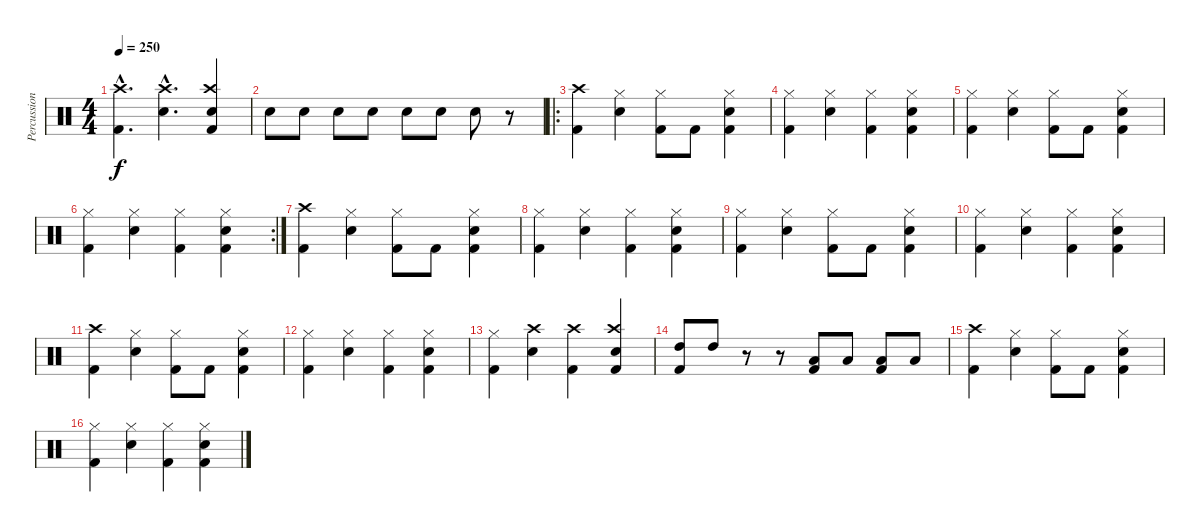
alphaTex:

\track ("Percussion" "Percussion") {instrument percussion}
\staff {score}
\articulation defaults
\ts (4 4)
\tempo 250
\clef neutral
\ks c
("Kick (hit) 2"{hac} "Crash high (hit)"{hac}).4{d dy f} ("Electric Snare (hit)"{hac} "Crash high (hit)"{hac}).4{d} ("Electric Snare (hit)" "Kick (hit) 2" "Crash high (hit)").4 |
"Electric Snare (hit)".8 "Electric Snare (hit)".8 "Electric Snare (hit)".8 "Electric Snare (hit)".8 "Electric Snare (hit)".8 "Electric Snare (hit)".8 "Electric Snare (hit)".8 r.8 |
\ro
("Kick (hit) 2" "Crash high (hit)").4 ("Electric Snare (hit)" "Hi-Hat (closed)").4 ("Kick (hit) 2" "Hi-Hat (closed)").8 "Kick (hit) 2".8 ("Electric Snare (hit)" "Kick (hit) 2" "Hi-Hat (closed)").4 |
("Kick (hit) 2" "Hi-Hat (closed)").4 ("Electric Snare (hit)" "Hi-Hat (closed)").4 ("Kick (hit) 2" "Hi-Hat (closed)").4 ("Electric Snare (hit)" "Kick (hit) 2" "Hi-Hat (closed)").4 |
("Kick (hit) 2" "Hi-Hat (closed)").4 ("Electric Snare (hit)" "Hi-Hat (closed)").4 ("Kick (hit) 2" "Hi-Hat (closed)").8 "Kick (hit) 2".8 ("Electric Snare (hit)" "Kick (hit) 2" "Hi-Hat (closed)").4 |
\rc 2
("Kick (hit) 2" "Hi-Hat (closed)").4 ("Electric Snare (hit)" "Hi-Hat (closed)").4 ("Kick (hit) 2" "Hi-Hat (closed)").4 ("Electric Snare (hit)" "Kick (hit) 2" "Hi-Hat (closed)").4 |
("Kick (hit) 2" "Crash high (hit)").4 ("Electric Snare (hit)" "Hi-Hat (closed)").4 ("Kick (hit) 2" "Hi-Hat (closed)").8 "Kick (hit) 2".8 ("Electric Snare (hit)" "Kick (hit) 2" "Hi-Hat (closed)").4 |
("Kick (hit) 2" "Hi-Hat (closed)").4 ("Electric Snare (hit)" "Hi-Hat (closed)").4 ("Kick (hit) 2" "Hi-Hat (closed)").4 ("Electric Snare (hit)" "Kick (hit) 2" "Hi-Hat (closed)").4 |
("Kick (hit) 2" "Hi-Hat (closed)").4 ("Electric Snare (hit)" "Hi-Hat (closed)").4 ("Kick (hit) 2" "Hi-Hat (closed)").8 "Kick (hit) 2".8 ("Electric Snare (hit)" "Kick (hit) 2" "Hi-Hat (closed)").4 |
("Kick (hit) 2" "Hi-Hat (closed)").4 ("Electric Snare (hit)" "Hi-Hat (closed)").4 ("Kick (hit) 2" "Hi-Hat (closed)").4 ("Electric Snare (hit)" "Kick (hit) 2" "Hi-Hat (closed)").4 |
("Kick (hit) 2" "Crash high (hit)").4 ("Electric Snare (hit)" "Hi-Hat (closed)").4 ("Kick (hit) 2" "Hi-Hat (closed)").8 "Kick (hit) 2".8 ("Electric Snare (hit)" "Kick (hit) 2" "Hi-Hat (closed)").4 |
("Kick (hit) 2" "Hi-Hat (closed)").4 ("Electric Snare (hit)" "Hi-Hat (closed)").4 ("Kick (hit) 2" "Hi-Hat (closed)").4 ("Electric Snare (hit)" "Kick (hit) 2" "Hi-Hat (closed)").4 |
("Kick (hit) 2" "Hi-Hat (closed)").4 ("Electric Snare (hit)" "Crash high (hit)").4 ("Kick (hit) 2" "Crash high (hit)").4 ("Electric Snare (hit)" "Kick (hit) 2" "Crash high (hit)").4 |
("Kick (hit) 2" "High Tom (hit)").8 "High Tom (hit)".8 r.8 r.8 ("Kick (hit) 2" "Low Tom (hit)").8 "Low Tom (hit)".8 ("Kick (hit) 2" "Low Tom (hit)").8 "Low Tom (hit)".8 |
("Kick (hit) 2" "Crash high (hit)").4 ("Electric Snare (hit)" "Hi-Hat (closed)").4 ("Kick (hit) 2" "Hi-Hat (closed)").8 "Kick (hit) 2".8 ("Electric Snare (hit)" "Kick (hit) 2" "Hi-Hat (closed)").4 |
("Kick (hit) 2" "Hi-Hat (closed)").4 ("Electric Snare (hit)" "Hi-Hat (closed)").4 ("Kick (hit) 2" "Hi-Hat (closed)").4 ("Electric Snare (hit)" "Kick (hit) 2" "Hi-Hat (closed)").4
